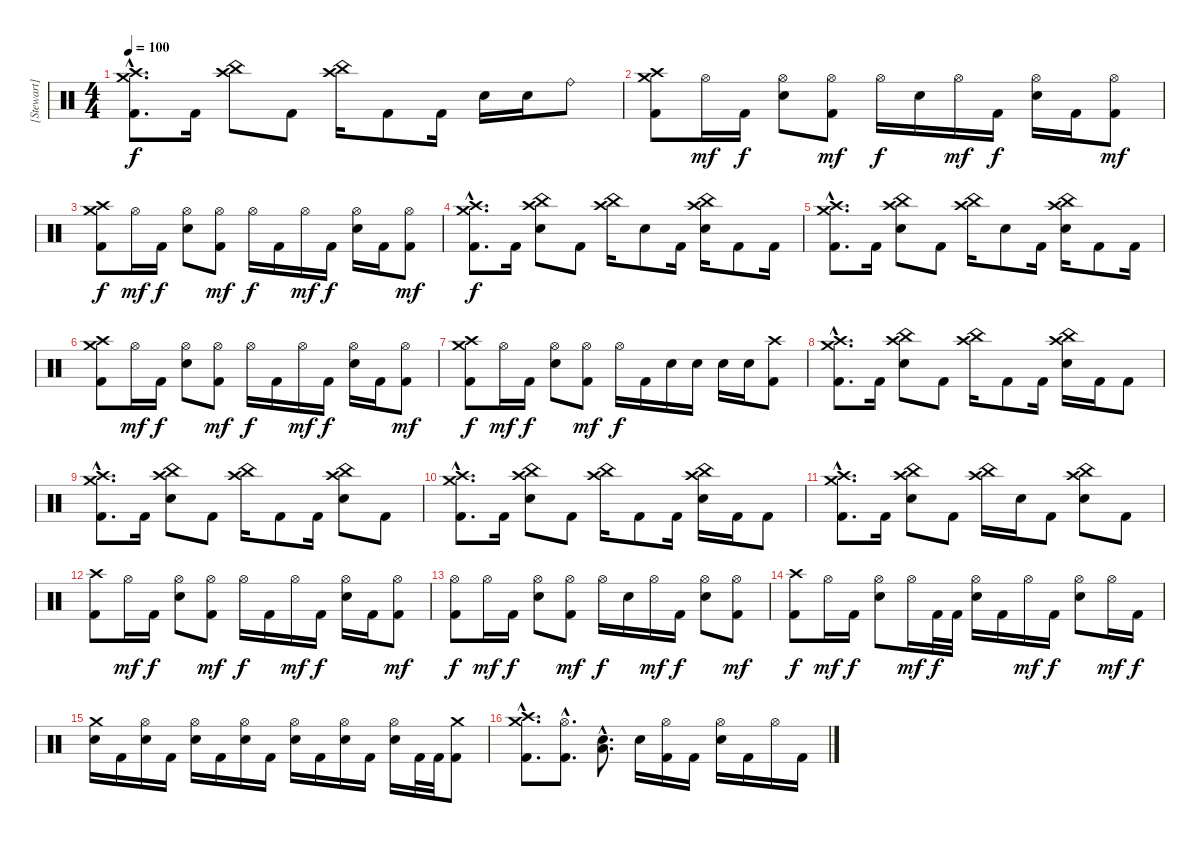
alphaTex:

\track ("[Stewart]" "[Stewart]") {instrument percussion}
\staff {score}
\articulation defaults
\ts (4 4)
\tempo 100
\clef neutral
\ks c
("Crash high (hit)"{hac} "Crash medium (hit)"{hac} "Kick (hit) 2"{hac}).8{d dy f} "Kick (hit) 2".16 ("Crash high (hit)" "China (hit)").8 "Kick (hit) 2".8 ("Crash high (hit)" "China (hit)").16 "Kick (hit) 2".8 "Kick (hit) 2".16 "Electric Snare (hit)".16 "Electric Snare (hit)".16 "Ride (bell)".8 |
("Crash high (hit)" "Crash medium (hit)" "Kick (hit) 2").8 "Hi-Hat (open)".16{dy mf} "Kick (hit) 2".16{dy f} ("Hi-Hat (open)" "Electric Snare (hit)").8 ("Hi-Hat (open)" "Kick (hit) 2").8{dy mf} "Hi-Hat (open)".16{dy f} "Electric Snare (hit)".16 "Hi-Hat (open)".16{dy mf} "Kick (hit) 2".16{dy f} ("Hi-Hat (open)" "Electric Snare (hit)").16 "Kick (hit) 2".16 ("Hi-Hat (open)" "Kick (hit) 2").8{dy mf} |
("Crash high (hit)" "Crash medium (hit)" "Kick (hit) 2").8{dy f} "Hi-Hat (open)".16{dy mf} "Kick (hit) 2".16{dy f} ("Hi-Hat (open)" "Electric Snare (hit)").8 ("Hi-Hat (open)" "Kick (hit) 2").8{dy mf} "Hi-Hat (open)".16{dy f} "Kick (hit) 2".16 "Hi-Hat (open)".16{dy mf} "Kick (hit) 2".16{dy f} ("Hi-Hat (open)" "Electric Snare (hit)").16 "Kick (hit) 2".16 ("Hi-Hat (open)" "Kick (hit) 2").8{dy mf} |
("Crash high (hit)"{hac} "Crash medium (hit)"{hac} "Kick (hit) 2"{hac}).8{d dy f} "Kick (hit) 2".16 ("Crash high (hit)" "China (hit)" "Electric Snare (hit)").8 "Kick (hit) 2".8 ("Crash high (hit)" "China (hit)").16 "Electric Snare (hit)".8 "Kick (hit) 2".16 ("Crash high (hit)" "China (hit)" "Electric Snare (hit)").16 "Kick (hit) 2".8 "Kick (hit) 2".16 |
("Crash high (hit)"{hac} "Crash medium (hit)"{hac} "Kick (hit) 2"{hac}).8{d} "Kick (hit) 2".16 ("Crash high (hit)" "China (hit)" "Electric Snare (hit)").8 "Kick (hit) 2".8 ("Crash high (hit)" "China (hit)").16 "Electric Snare (hit)".8 "Kick (hit) 2".16 ("Crash high (hit)" "China (hit)" "Electric Snare (hit)").16 "Kick (hit) 2".8 "Kick (hit) 2".16 |
("Crash high (hit)" "Crash medium (hit)" "Kick (hit) 2").8 "Hi-Hat (open)".16{dy mf} "Kick (hit) 2".16{dy f} ("Hi-Hat (open)" "Electric Snare (hit)").8 ("Hi-Hat (open)" "Kick (hit) 2").8{dy mf} "Hi-Hat (open)".16{dy f} "Kick (hit) 2".16 "Hi-Hat (open)".16{dy mf} "Kick (hit) 2".16{dy f} ("Hi-Hat (open)" "Electric Snare (hit)").16 "Kick (hit) 2".16 ("Hi-Hat (open)" "Kick (hit) 2").8{dy mf} |
("Crash high (hit)" "Crash medium (hit)" "Kick (hit) 2").8{dy f} "Hi-Hat (open)".16{dy mf} "Kick (hit) 2".16{dy f} ("Hi-Hat (open)" "Electric Snare (hit)").8 ("Hi-Hat (open)" "Kick (hit) 2").8{dy mf} "Hi-Hat (open)".16{dy f} "Kick (hit) 2".16 "Electric Snare (hit)".16 "Electric Snare (hit)".16 "Electric Snare (hit)".16 "Electric Snare (hit)".16 ("Crash high (hit)" "Kick (hit) 2").8 |
("Crash high (hit)"{hac} "Crash medium (hit)"{hac} "Kick (hit) 2"{hac}).8{d} "Kick (hit) 2".16 ("Crash high (hit)" "China (hit)" "Electric Snare (hit)").8 "Kick (hit) 2".8 ("Crash high (hit)" "China (hit)").16 "Kick (hit) 2".8 "Kick (hit) 2".16 ("Crash high (hit)" "China (hit)" "Electric Snare (hit)").16 "Kick (hit) 2".16 "Kick (hit) 2".8 |
("Crash high (hit)"{hac} "Crash medium (hit)"{hac} "Kick (hit) 2"{hac}).8{d} "Kick (hit) 2".16 ("Crash high (hit)" "China (hit)" "Electric Snare (hit)").8 "Kick (hit) 2".8 ("Crash high (hit)" "China (hit)").16 "Kick (hit) 2".8 "Kick (hit) 2".16 ("Crash high (hit)" "China (hit)" "Electric Snare (hit)").8 "Kick (hit) 2".8 |
("Crash high (hit)"{hac} "Crash medium (hit)"{hac} "Kick (hit) 2"{hac}).8{d} "Kick (hit) 2".16 ("Crash high (hit)" "China (hit)" "Electric Snare (hit)").8 "Kick (hit) 2".8 ("Crash high (hit)" "China (hit)").16 "Kick (hit) 2".8 "Kick (hit) 2".16 ("Crash high (hit)" "China (hit)" "Electric Snare (hit)").16 "Kick (hit) 2".16 "Kick (hit) 2".8 |
("Crash high (hit)"{hac} "Crash medium (hit)"{hac} "Kick (hit) 2"{hac}).8{d} "Kick (hit) 2".16 ("Crash high (hit)" "China (hit)" "Electric Snare (hit)").8 "Kick (hit) 2".8 ("Crash high (hit)" "China (hit)").16 "Electric Snare (hit)".16 "Kick (hit) 2".8 ("Crash high (hit)" "China (hit)" "Electric Snare (hit)").8 "Kick (hit) 2".8 |
("Crash high (hit)" "Kick (hit) 2").8 "Hi-Hat (open)".16{dy mf} "Kick (hit) 2".16{dy f} ("Hi-Hat (open)" "Electric Snare (hit)").8 ("Hi-Hat (open)" "Kick (hit) 2").8{dy mf} "Hi-Hat (open)".16{dy f} "Kick (hit) 2".16 "Hi-Hat (open)".16{dy mf} "Kick (hit) 2".16{dy f} ("Hi-Hat (open)" "Electric Snare (hit)").16 "Kick (hit) 2".16 ("Hi-Hat (open)" "Kick (hit) 2").8{dy mf} |
("Hi-Hat (open)" "Kick (hit) 2").8{dy f} "Hi-Hat (open)".16{dy mf} "Kick (hit) 2".16{dy f} ("Hi-Hat (open)" "Electric Snare (hit)").8 ("Hi-Hat (open)" "Kick (hit) 2").8{dy mf} "Hi-Hat (open)".16{dy f} "Electric Snare (hit)".16 "Hi-Hat (open)".16{dy mf} "Kick (hit) 2".16{dy f} ("Hi-Hat (open)" "Electric Snare (hit)").8 ("Hi-Hat (open)" "Kick (hit) 2").8{dy mf} |
("Crash high (hit)" "Kick (hit) 2").8{dy f} "Hi-Hat (open)".16{dy mf} "Kick (hit) 2".16{dy f} ("Hi-Hat (open)" "Electric Snare (hit)").8 "Hi-Hat (open)".16{dy mf} "Kick (hit) 2".32{dy f} "Kick (hit) 2".32 ("Hi-Hat (open)" "Electric Snare (hit)").16 "Kick (hit) 2".16 "Hi-Hat (open)".16{dy mf} "Kick (hit) 2".16{dy f} ("Hi-Hat (open)" "Electric Snare (hit)").8 "Hi-Hat (open)".16{dy mf} "Kick (hit) 2".16{dy f} |
("Crash medium (hit)" "Electric Snare (hit)").16 "Kick (hit) 2".16 ("Hi-Hat (open)" "Electric Snare (hit)").16 "Kick (hit) 2".16 ("Hi-Hat (open)" "Electric Snare (hit)").16 "Kick (hit) 2".16 ("Hi-Hat (open)" "Electric Snare (hit)").16 "Kick (hit) 2".16 ("Hi-Hat (open)" "Electric Snare (hit)").16 "Kick (hit) 2".16 ("Hi-Hat (open)" "Electric Snare (hit)").16 "Kick (hit) 2".16 ("Hi-Hat (open)" "Electric Snare (hit)").16 "Kick (hit) 2".32 "Kick (hit) 2".32 ("Crash medium (hit)" "Kick (hit) 2").8 |
("Crash high (hit)"{hac} "Crash medium (hit)"{hac} "Kick (hit) 2"{hac}).8{d} ("Hi-Hat (open)"{hac} "Kick (hit) 2"{hac}).8{d} ("Electric Snare (hit)"{hac} "Low Tom (hit)"{hac}).8{d} "Electric Snare (hit)".16 ("Hi-Hat (open)" "Kick (hit) 2").16 "Kick (hit) 2".16 ("Hi-Hat (open)" "Electric Snare (hit)").16 "Kick (hit) 2".16 "Hi-Hat (open)".16 "Kick (hit) 2".16
